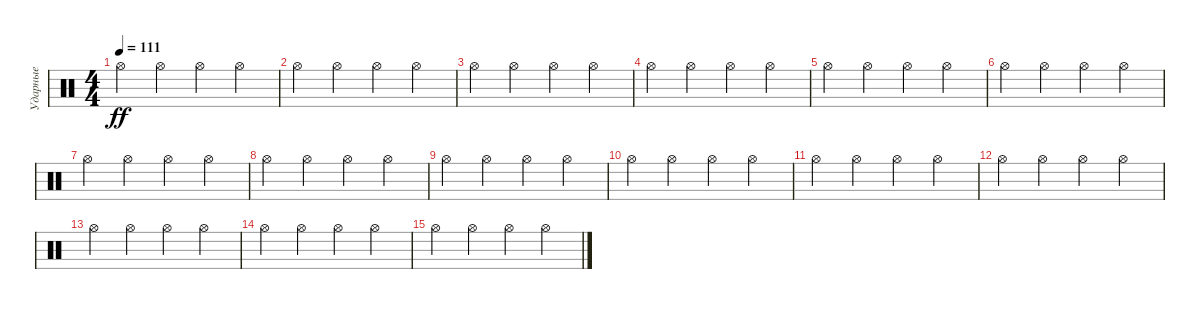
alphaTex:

\track ("Ударные" "Ударные") {instrument percussion}
\staff {score}
\articulation defaults
\ts (4 4)
\tempo 111
\clef neutral
\ks c "Hi-Hat (open)".4{dy ff} "Hi-Hat (open)".4 "Hi-Hat (open)".4 "Hi-Hat (open)".4
|
"Hi-Hat (open)".4 "Hi-Hat (open)".4 "Hi-Hat (open)".4 "Hi-Hat (open)".4 |
"Hi-Hat (open)".4 "Hi-Hat (open)".4 "Hi-Hat (open)".4 "Hi-Hat (open)".4 |
"Hi-Hat (open)".4 "Hi-Hat (open)".4 "Hi-Hat (open)".4 "Hi-Hat (open)".4 |
"Hi-Hat (open)".4 "Hi-Hat (open)".4 "Hi-Hat (open)".4 "Hi-Hat (open)".4 |
"Hi-Hat (open)".4 "Hi-Hat (open)".4 "Hi-Hat (open)".4 "Hi-Hat (open)".4 |
"Hi-Hat (open)".4 "Hi-Hat (open)".4 "Hi-Hat (open)".4 "Hi-Hat (open)".4 |
"Hi-Hat (open)".4 "Hi-Hat (open)".4 "Hi-Hat (open)".4 "Hi-Hat (open)".4 |
"Hi-Hat (open)".4 "Hi-Hat (open)".4 "Hi-Hat (open)".4 "Hi-Hat (open)".4 |
"Hi-Hat (open)".4 "Hi-Hat (open)".4 "Hi-Hat (open)".4 "Hi-Hat (open)".4 |
"Hi-Hat (open)".4 "Hi-Hat (open)".4 "Hi-Hat (open)".4 "Hi-Hat (open)".4 |
"Hi-Hat (open)".4 "Hi-Hat (open)".4 "Hi-Hat (open)".4 "Hi-Hat (open)".4 |
"Hi-Hat (open)".4 "Hi-Hat (open)".4 "Hi-Hat (open)".4 "Hi-Hat (open)".4 |
"Hi-Hat (open)".4 "Hi-Hat (open)".4 "Hi-Hat (open)".4 "Hi-Hat (open)".4 |
"Hi-Hat (open)".4 "Hi-Hat (open)".4 "Hi-Hat (open)".4 "Hi-Hat (open)".4
